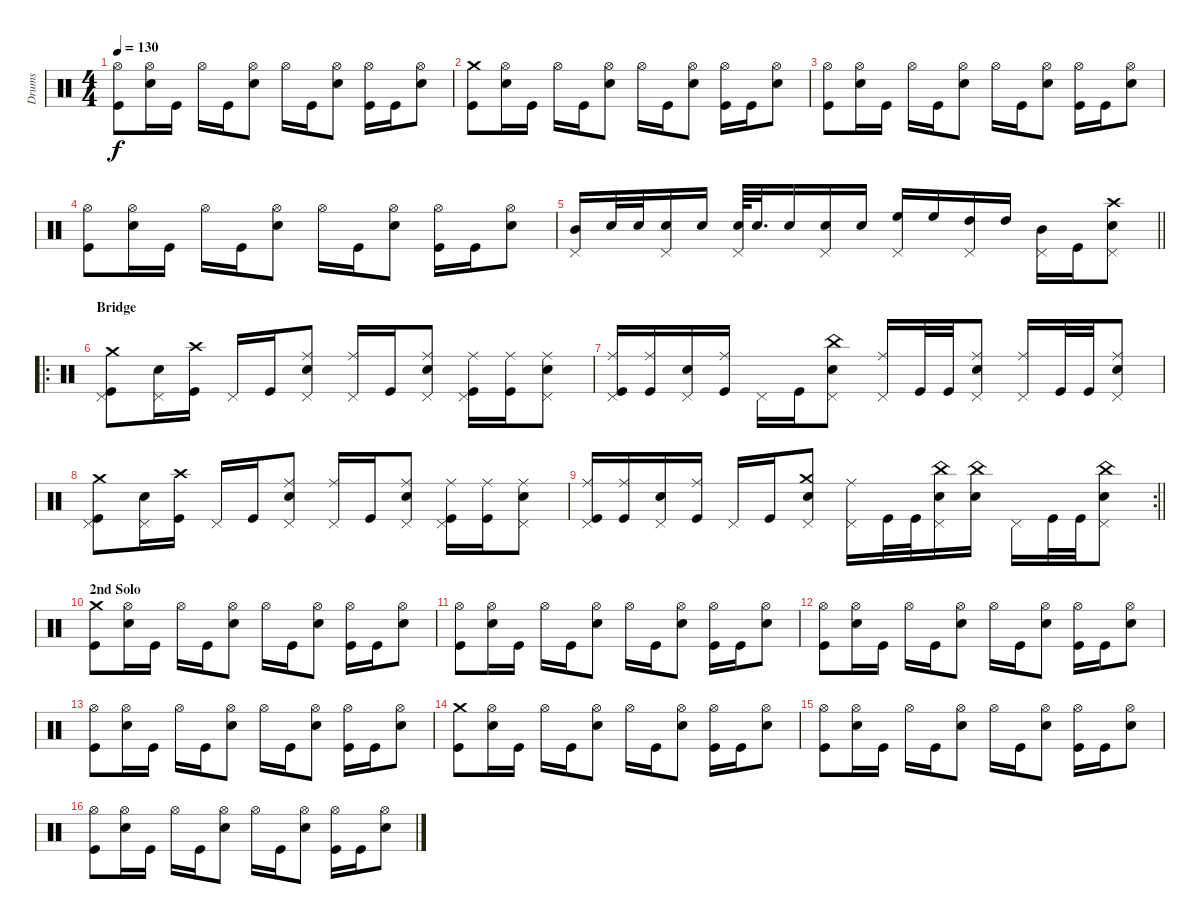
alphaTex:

\track ("Drums" "Drums") {instrument percussion}
\staff {score}
\articulation defaults
\ts (4 4)
\tempo 130
\clef neutral
\ks c
("Hi-Hat (open)" "Kick (hit)").8{dy f} ("Hi-Hat (open)" "Snare (hit) 2").16 "Kick (hit)".16 "Hi-Hat (open)".16 "Kick (hit)".16 ("Hi-Hat (open)" "Snare (hit) 2").8 "Hi-Hat (open)".16 "Kick (hit)".16 ("Hi-Hat (open)" "Snare (hit) 2").8 ("Hi-Hat (open)" "Kick (hit)").16 "Kick (hit)".16 ("Hi-Hat (open)" "Snare (hit) 2").8 |
("Crash medium (hit)" "Kick (hit)").8 ("Hi-Hat (open)" "Snare (hit) 2").16 "Kick (hit)".16 "Hi-Hat (open)".16 "Kick (hit)".16 ("Hi-Hat (open)" "Snare (hit) 2").8 "Hi-Hat (open)".16 "Kick (hit)".16 ("Hi-Hat (open)" "Snare (hit) 2").8 ("Hi-Hat (open)" "Kick (hit)").16 "Kick (hit)".16 ("Hi-Hat (open)" "Snare (hit) 2").8 |
("Hi-Hat (open)" "Kick (hit)").8 ("Hi-Hat (open)" "Snare (hit) 2").16 "Kick (hit)".16 "Hi-Hat (open)".16 "Kick (hit)".16 ("Hi-Hat (open)" "Snare (hit) 2").8 "Hi-Hat (open)".16 "Kick (hit)".16 ("Hi-Hat (open)" "Snare (hit) 2").8 ("Hi-Hat (open)" "Kick (hit)").16 "Kick (hit)".16 ("Hi-Hat (open)" "Snare (hit) 2").8 |
("Hi-Hat (open)" "Kick (hit)").8 ("Hi-Hat (open)" "Snare (hit) 2").16 "Kick (hit)".16 "Hi-Hat (open)".16 "Kick (hit)".16 ("Hi-Hat (open)" "Snare (hit) 2").8 "Hi-Hat (open)".16 "Kick (hit)".16 ("Hi-Hat (open)" "Snare (hit) 2").8 ("Hi-Hat (open)" "Kick (hit)").16 "Kick (hit)".16 ("Hi-Hat (open)" "Snare (hit) 2").8 |
\barLineRight lightlight
("Mid Tom (hit)" "Pedal Hi-Hat (hit)").16 "Snare (hit) 2".32 "Snare (hit) 2".32 ("Snare (hit) 2" "Pedal Hi-Hat (hit)").16 "Snare (hit) 2".16 ("Snare (hit) 2" "Pedal Hi-Hat (hit)").64 "Snare (hit) 2".32{d} "Snare (hit) 2".16 ("Snare (hit) 2" "Pedal Hi-Hat (hit)").16 "Snare (hit) 2".16 ("High Floor Tom (hit)" "Pedal Hi-Hat (hit)").16 "High Floor Tom (hit)".16 ("High Tom (hit)" "Pedal Hi-Hat (hit)").16 "High Tom (hit)".16 ("Mid Tom (hit)" "Pedal Hi-Hat (hit)").16 "Kick (hit)".16 ("Crash high (hit)" "Snare (hit) 2" "Pedal Hi-Hat (hit)").8 |
\ro
\section ("" "Bridge")
("Crash medium (hit)" "Pedal Hi-Hat (hit)" "Kick (hit)").8 ("Snare (hit) 2" "Pedal Hi-Hat (hit)").16 ("Crash high (hit)" "Kick (hit)").16 "Pedal Hi-Hat (hit)".16 "Kick (hit)".16 ("Ride (middle)" "Snare (hit) 2" "Pedal Hi-Hat (hit)").8 ("Ride (middle)" "Pedal Hi-Hat (hit)").16 "Kick (hit)".16 ("Ride (middle)" "Snare (hit) 2" "Pedal Hi-Hat (hit)").8 ("Ride (middle)" "Pedal Hi-Hat (hit)" "Kick (hit)").16 ("Ride (middle)" "Kick (hit)").16 ("Ride (middle)" "Snare (hit) 2" "Pedal Hi-Hat (hit)").8 |
("Ride (middle)" "Pedal Hi-Hat (hit)" "Kick (hit)").16 ("Ride (middle)" "Kick (hit)").16 ("Snare (hit) 2" "Pedal Hi-Hat (hit)").16 ("Ride (middle)" "Kick (hit)").16 "Pedal Hi-Hat (hit)".16 "Kick (hit)".16 ("China (hit)" "Snare (hit) 2" "Pedal Hi-Hat (hit)").8 ("Ride (middle)" "Pedal Hi-Hat (hit)").16 "Kick (hit)".32 "Kick (hit)".32 ("Ride (middle)" "Snare (hit) 2" "Pedal Hi-Hat (hit)").8 ("Ride (middle)" "Pedal Hi-Hat (hit)").16 "Kick (hit)".32 "Kick (hit)".32 ("Ride (middle)" "Snare (hit) 2" "Pedal Hi-Hat (hit)").8 |
("Crash medium (hit)" "Pedal Hi-Hat (hit)" "Kick (hit)").8 ("Snare (hit) 2" "Pedal Hi-Hat (hit)").16 ("Crash high (hit)" "Kick (hit)").16 "Pedal Hi-Hat (hit)".16 "Kick (hit)".16 ("Ride (middle)" "Snare (hit) 2" "Pedal Hi-Hat (hit)").8 ("Ride (middle)" "Pedal Hi-Hat (hit)").16 "Kick (hit)".16 ("Ride (middle)" "Snare (hit) 2" "Pedal Hi-Hat (hit)").8 ("Ride (middle)" "Pedal Hi-Hat (hit)" "Kick (hit)").16 ("Ride (middle)" "Kick (hit)").16 ("Ride (middle)" "Snare (hit) 2" "Pedal Hi-Hat (hit)").8 |
\rc 2
\barLineRight lightlight
("Ride (middle)" "Pedal Hi-Hat (hit)" "Kick (hit)").16 ("Ride (middle)" "Kick (hit)").16 ("Snare (hit) 2" "Pedal Hi-Hat (hit)").16 ("Ride (middle)" "Kick (hit)").16 "Pedal Hi-Hat (hit)".16 "Kick (hit)".16 ("Crash medium (hit)" "Snare (hit) 2" "Pedal Hi-Hat (hit)").8 ("Ride (middle)" "Pedal Hi-Hat (hit)").16 "Kick (hit)".32 "Kick (hit)".32 ("China (hit)" "Snare (hit) 2" "Pedal Hi-Hat (hit)").16 ("China (hit)" "Snare (hit) 2").16 "Pedal Hi-Hat (hit)".16 "Kick (hit)".32 "Kick (hit)".32 ("China (hit)" "Snare (hit) 2" "Pedal Hi-Hat (hit)").8 |
\section ("" "2nd Solo")
("Crash medium (hit)" "Kick (hit)").8 ("Hi-Hat (open)" "Snare (hit) 2").16 "Kick (hit)".16 "Hi-Hat (open)".16 "Kick (hit)".16 ("Hi-Hat (open)" "Snare (hit) 2").8 "Hi-Hat (open)".16 "Kick (hit)".16 ("Hi-Hat (open)" "Snare (hit) 2").8 ("Hi-Hat (open)" "Kick (hit)").16 "Kick (hit)".16 ("Hi-Hat (open)" "Snare (hit) 2").8 |
("Hi-Hat (open)" "Kick (hit)").8 ("Hi-Hat (open)" "Snare (hit) 2").16 "Kick (hit)".16 "Hi-Hat (open)".16 "Kick (hit)".16 ("Hi-Hat (open)" "Snare (hit) 2").8 "Hi-Hat (open)".16 "Kick (hit)".16 ("Hi-Hat (open)" "Snare (hit) 2").8 ("Hi-Hat (open)" "Kick (hit)").16 "Kick (hit)".16 ("Hi-Hat (open)" "Snare (hit) 2").8 |
("Hi-Hat (open)" "Kick (hit)").8 ("Hi-Hat (open)" "Snare (hit) 2").16 "Kick (hit)".16 "Hi-Hat (open)".16 "Kick (hit)".16 ("Hi-Hat (open)" "Snare (hit) 2").8 "Hi-Hat (open)".16 "Kick (hit)".16 ("Hi-Hat (open)" "Snare (hit) 2").8 ("Hi-Hat (open)" "Kick (hit)").16 "Kick (hit)".16 ("Hi-Hat (open)" "Snare (hit) 2").8 |
("Hi-Hat (open)" "Kick (hit)").8 ("Hi-Hat (open)" "Snare (hit) 2").16 "Kick (hit)".16 "Hi-Hat (open)".16 "Kick (hit)".16 ("Hi-Hat (open)" "Snare (hit) 2").8 "Hi-Hat (open)".16 "Kick (hit)".16 ("Hi-Hat (open)" "Snare (hit) 2").8 ("Hi-Hat (open)" "Kick (hit)").16 "Kick (hit)".16 ("Hi-Hat (open)" "Snare (hit) 2").8 |
("Crash medium (hit)" "Kick (hit)").8 ("Hi-Hat (open)" "Snare (hit) 2").16 "Kick (hit)".16 "Hi-Hat (open)".16 "Kick (hit)".16 ("Hi-Hat (open)" "Snare (hit) 2").8 "Hi-Hat (open)".16 "Kick (hit)".16 ("Hi-Hat (open)" "Snare (hit) 2").8 ("Hi-Hat (open)" "Kick (hit)").16 "Kick (hit)".16 ("Hi-Hat (open)" "Snare (hit) 2").8 |
("Hi-Hat (open)" "Kick (hit)").8 ("Hi-Hat (open)" "Snare (hit) 2").16 "Kick (hit)".16 "Hi-Hat (open)".16 "Kick (hit)".16 ("Hi-Hat (open)" "Snare (hit) 2").8 "Hi-Hat (open)".16 "Kick (hit)".16 ("Hi-Hat (open)" "Snare (hit) 2").8 ("Hi-Hat (open)" "Kick (hit)").16 "Kick (hit)".16 ("Hi-Hat (open)" "Snare (hit) 2").8 |
("Hi-Hat (open)" "Kick (hit)").8 ("Hi-Hat (open)" "Snare (hit) 2").16 "Kick (hit)".16 "Hi-Hat (open)".16 "Kick (hit)".16 ("Hi-Hat (open)" "Snare (hit) 2").8 "Hi-Hat (open)".16 "Kick (hit)".16 ("Hi-Hat (open)" "Snare (hit) 2").8 ("Hi-Hat (open)" "Kick (hit)").16 "Kick (hit)".16 ("Hi-Hat (open)" "Snare (hit) 2").8
